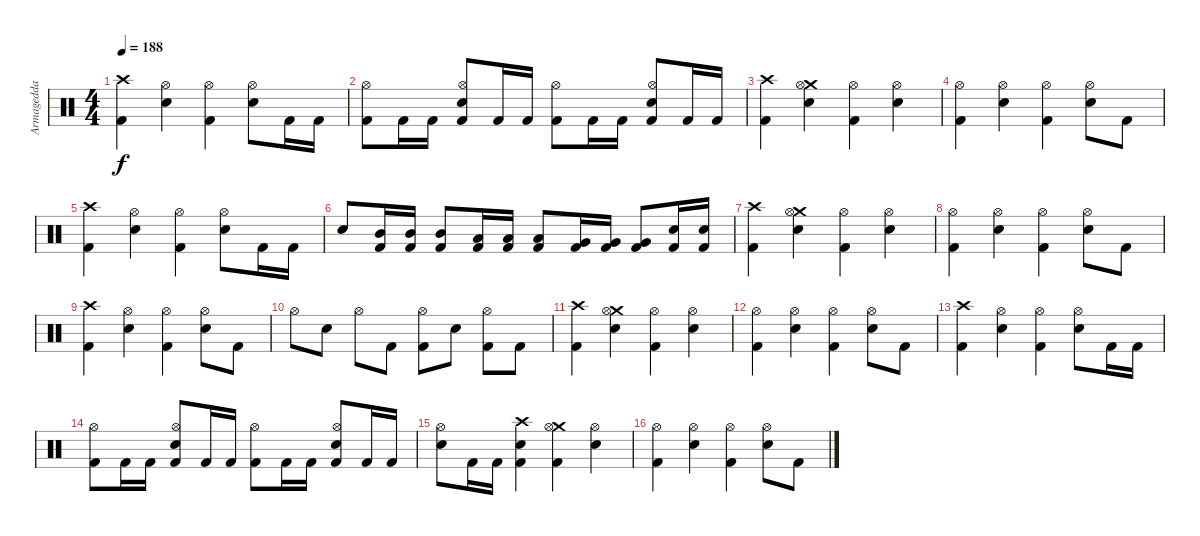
\track ("Armagedda" "Armagedda") {instrument percussion}
\staff {score}
\articulation defaults
\ts (4 4)
\tempo 188
\clef neutral
\ks c
("Crash high (hit)" "Kick (hit) 2").4{dy f} ("Hi-Hat (open)" "Electric Snare (hit)").4 ("Hi-Hat (open)" "Kick (hit) 2").4 ("Hi-Hat (open)" "Electric Snare (hit)").8 "Kick (hit) 2".16 "Kick (hit) 2".16 |
("Hi-Hat (open)" "Kick (hit) 2").8 "Kick (hit) 2".16 "Kick (hit) 2".16 ("Hi-Hat (open)" "Electric Snare (hit)" "Kick (hit) 2").8 "Kick (hit) 2".16 "Kick (hit) 2".16 ("Hi-Hat (open)" "Kick (hit) 2").8 "Kick (hit) 2".16 "Kick (hit) 2".16 ("Hi-Hat (open)" "Electric Snare (hit)" "Kick (hit) 2").8 "Kick (hit) 2".16 "Kick (hit) 2".16 |
("Crash high (hit)" "Kick (hit) 2").4 ("Crash medium (hit)" "Hi-Hat (open)" "Electric Snare (hit)").4 ("Hi-Hat (open)" "Kick (hit) 2").4 ("Hi-Hat (open)" "Electric Snare (hit)").4 |
("Hi-Hat (open)" "Kick (hit) 2").4 ("Hi-Hat (open)" "Electric Snare (hit)").4 ("Hi-Hat (open)" "Kick (hit) 2").4 ("Hi-Hat (open)" "Electric Snare (hit)").8 "Kick (hit) 2".8 |
("Crash high (hit)" "Kick (hit) 2").4 ("Hi-Hat (open)" "Electric Snare (hit)").4 ("Hi-Hat (open)" "Kick (hit) 2").4 ("Hi-Hat (open)" "Electric Snare (hit)").8 "Kick (hit) 2".16 "Kick (hit) 2".16 |
"Electric Snare (hit)".8 ("Mid Tom (hit)" "Kick (hit) 2").16 ("Mid Tom (hit)" "Kick (hit) 2").16 ("Mid Tom (hit)" "Kick (hit) 2").8 ("Low Tom (hit)" "Kick (hit) 2").16 ("Low Tom (hit)" "Kick (hit) 2").16 ("Low Tom (hit)" "Kick (hit) 2").8 ("Very Low Tom (hit)" "Kick (hit) 2").16 ("Very Low Tom (hit)" "Kick (hit) 2").16 ("Very Low Tom (hit)" "Kick (hit) 2").8 ("Electric Snare (hit)" "Kick (hit) 2").16 ("Electric Snare (hit)" "Kick (hit) 2").16 |
("Crash high (hit)" "Kick (hit) 2").4 ("Crash medium (hit)" "Hi-Hat (open)" "Electric Snare (hit)").4 ("Hi-Hat (open)" "Kick (hit) 2").4 ("Hi-Hat (open)" "Electric Snare (hit)").4 |
("Hi-Hat (open)" "Kick (hit) 2").4 ("Hi-Hat (open)" "Electric Snare (hit)").4 ("Hi-Hat (open)" "Kick (hit) 2").4 ("Hi-Hat (open)" "Electric Snare (hit)").8 "Kick (hit) 2".8 |
("Crash high (hit)" "Kick (hit) 2").4 ("Hi-Hat (open)" "Electric Snare (hit)").4 ("Hi-Hat (open)" "Kick (hit) 2").4 ("Hi-Hat (open)" "Electric Snare (hit)").8 "Kick (hit) 2".8 |
"Hi-Hat (open)".8 "Electric Snare (hit)".8 "Hi-Hat (open)".8 "Kick (hit) 2".8 ("Hi-Hat (open)" "Kick (hit) 2").8 "Electric Snare (hit)".8 ("Hi-Hat (open)" "Kick (hit) 2").8 "Kick (hit) 2".8 |
("Crash high (hit)" "Kick (hit) 2").4 ("Crash medium (hit)" "Hi-Hat (open)" "Electric Snare (hit)").4 ("Hi-Hat (open)" "Kick (hit) 2").4 ("Hi-Hat (open)" "Electric Snare (hit)").4 |
("Hi-Hat (open)" "Kick (hit) 2").4 ("Hi-Hat (open)" "Electric Snare (hit)").4 ("Hi-Hat (open)" "Kick (hit) 2").4 ("Hi-Hat (open)" "Electric Snare (hit)").8 "Kick (hit) 2".8 |
("Crash high (hit)" "Kick (hit) 2").4 ("Hi-Hat (open)" "Electric Snare (hit)").4 ("Hi-Hat (open)" "Kick (hit) 2").4 ("Hi-Hat (open)" "Electric Snare (hit)").8 "Kick (hit) 2".16 "Kick (hit) 2".16 |
("Hi-Hat (open)" "Kick (hit) 2").8 "Kick (hit) 2".16 "Kick (hit) 2".16 ("Hi-Hat (open)" "Electric Snare (hit)" "Kick (hit) 2").8 "Kick (hit) 2".16 "Kick (hit) 2".16 ("Hi-Hat (open)" "Kick (hit) 2").8 "Kick (hit) 2".16 "Kick (hit) 2".16 ("Hi-Hat (open)" "Electric Snare (hit)" "Kick (hit) 2").8 "Kick (hit) 2".16 "Kick (hit) 2".16 |
("Hi-Hat (open)" "Electric Snare (hit)").8 "Kick (hit) 2".16 "Kick (hit) 2".16 ("Crash high (hit)" "Electric Snare (hit)" "Kick (hit) 2").4 ("Crash medium (hit)" "Hi-Hat (open)" "Kick (hit) 2").4 ("Hi-Hat (open)" "Electric Snare (hit)").4 |
("Hi-Hat (open)" "Kick (hit) 2").4 ("Hi-Hat (open)" "Electric Snare (hit)").4 ("Hi-Hat (open)" "Kick (hit) 2").4 ("Hi-Hat (open)" "Electric Snare (hit)").8 "Kick (hit) 2".8
